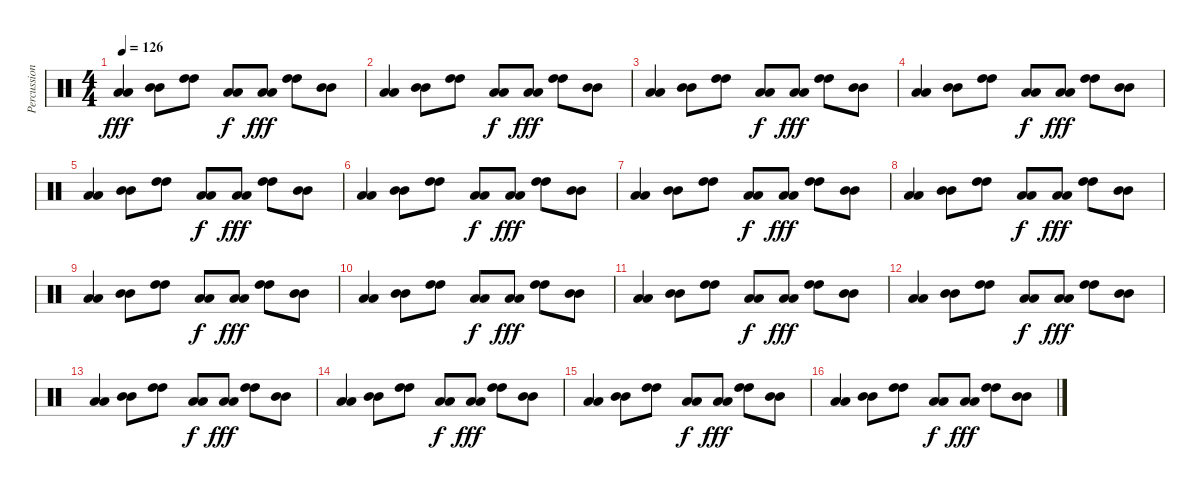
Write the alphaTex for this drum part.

\track ("Percussions 2" "Percussion") {instrument percussion}
\staff {score}
\articulation defaults
\ts (4 4)
\tempo 126
\clef neutral
\ks c
("Low Tom (hit)" "Low Tom (hit)").4{dy fff} ("Mid Tom (hit)" "Mid Tom (hit)").8 ("High Tom (hit)" "High Tom (hit)").8 ("Low Tom (hit)" "Low Tom (hit)").8{dy f} ("Low Tom (hit)" "Low Tom (hit)").8{dy fff} ("High Tom (hit)" "High Tom (hit)").8 ("Mid Tom (hit)" "Mid Tom (hit)").8 |
("Low Tom (hit)" "Low Tom (hit)").4 ("Mid Tom (hit)" "Mid Tom (hit)").8 ("High Tom (hit)" "High Tom (hit)").8 ("Low Tom (hit)" "Low Tom (hit)").8{dy f} ("Low Tom (hit)" "Low Tom (hit)").8{dy fff} ("High Tom (hit)" "High Tom (hit)").8 ("Mid Tom (hit)" "Mid Tom (hit)").8 |
("Low Tom (hit)" "Low Tom (hit)").4 ("Mid Tom (hit)" "Mid Tom (hit)").8 ("High Tom (hit)" "High Tom (hit)").8 ("Low Tom (hit)" "Low Tom (hit)").8{dy f} ("Low Tom (hit)" "Low Tom (hit)").8{dy fff} ("High Tom (hit)" "High Tom (hit)").8 ("Mid Tom (hit)" "Mid Tom (hit)").8 |
("Low Tom (hit)" "Low Tom (hit)").4 ("Mid Tom (hit)" "Mid Tom (hit)").8 ("High Tom (hit)" "High Tom (hit)").8 ("Low Tom (hit)" "Low Tom (hit)").8{dy f} ("Low Tom (hit)" "Low Tom (hit)").8{dy fff} ("High Tom (hit)" "High Tom (hit)").8 ("Mid Tom (hit)" "Mid Tom (hit)").8 |
("Low Tom (hit)" "Low Tom (hit)").4 ("Mid Tom (hit)" "Mid Tom (hit)").8 ("High Tom (hit)" "High Tom (hit)").8 ("Low Tom (hit)" "Low Tom (hit)").8{dy f} ("Low Tom (hit)" "Low Tom (hit)").8{dy fff} ("High Tom (hit)" "High Tom (hit)").8 ("Mid Tom (hit)" "Mid Tom (hit)").8 |
("Low Tom (hit)" "Low Tom (hit)").4 ("Mid Tom (hit)" "Mid Tom (hit)").8 ("High Tom (hit)" "High Tom (hit)").8 ("Low Tom (hit)" "Low Tom (hit)").8{dy f} ("Low Tom (hit)" "Low Tom (hit)").8{dy fff} ("High Tom (hit)" "High Tom (hit)").8 ("Mid Tom (hit)" "Mid Tom (hit)").8 |
("Low Tom (hit)" "Low Tom (hit)").4 ("Mid Tom (hit)" "Mid Tom (hit)").8 ("High Tom (hit)" "High Tom (hit)").8 ("Low Tom (hit)" "Low Tom (hit)").8{dy f} ("Low Tom (hit)" "Low Tom (hit)").8{dy fff} ("High Tom (hit)" "High Tom (hit)").8 ("Mid Tom (hit)" "Mid Tom (hit)").8 |
("Low Tom (hit)" "Low Tom (hit)").4 ("Mid Tom (hit)" "Mid Tom (hit)").8 ("High Tom (hit)" "High Tom (hit)").8 ("Low Tom (hit)" "Low Tom (hit)").8{dy f} ("Low Tom (hit)" "Low Tom (hit)").8{dy fff} ("High Tom (hit)" "High Tom (hit)").8 ("Mid Tom (hit)" "Mid Tom (hit)").8 |
("Low Tom (hit)" "Low Tom (hit)").4 ("Mid Tom (hit)" "Mid Tom (hit)").8 ("High Tom (hit)" "High Tom (hit)").8 ("Low Tom (hit)" "Low Tom (hit)").8{dy f} ("Low Tom (hit)" "Low Tom (hit)").8{dy fff} ("High Tom (hit)" "High Tom (hit)").8 ("Mid Tom (hit)" "Mid Tom (hit)").8 |
("Low Tom (hit)" "Low Tom (hit)").4 ("Mid Tom (hit)" "Mid Tom (hit)").8 ("High Tom (hit)" "High Tom (hit)").8 ("Low Tom (hit)" "Low Tom (hit)").8{dy f} ("Low Tom (hit)" "Low Tom (hit)").8{dy fff} ("High Tom (hit)" "High Tom (hit)").8 ("Mid Tom (hit)" "Mid Tom (hit)").8 |
("Low Tom (hit)" "Low Tom (hit)").4 ("Mid Tom (hit)" "Mid Tom (hit)").8 ("High Tom (hit)" "High Tom (hit)").8 ("Low Tom (hit)" "Low Tom (hit)").8{dy f} ("Low Tom (hit)" "Low Tom (hit)").8{dy fff} ("High Tom (hit)" "High Tom (hit)").8 ("Mid Tom (hit)" "Mid Tom (hit)").8 |
("Low Tom (hit)" "Low Tom (hit)").4 ("Mid Tom (hit)" "Mid Tom (hit)").8 ("High Tom (hit)" "High Tom (hit)").8 ("Low Tom (hit)" "Low Tom (hit)").8{dy f} ("Low Tom (hit)" "Low Tom (hit)").8{dy fff} ("High Tom (hit)" "High Tom (hit)").8 ("Mid Tom (hit)" "Mid Tom (hit)").8 |
("Low Tom (hit)" "Low Tom (hit)").4 ("Mid Tom (hit)" "Mid Tom (hit)").8 ("High Tom (hit)" "High Tom (hit)").8 ("Low Tom (hit)" "Low Tom (hit)").8{dy f} ("Low Tom (hit)" "Low Tom (hit)").8{dy fff} ("High Tom (hit)" "High Tom (hit)").8 ("Mid Tom (hit)" "Mid Tom (hit)").8 |
("Low Tom (hit)" "Low Tom (hit)").4 ("Mid Tom (hit)" "Mid Tom (hit)").8 ("High Tom (hit)" "High Tom (hit)").8 ("Low Tom (hit)" "Low Tom (hit)").8{dy f} ("Low Tom (hit)" "Low Tom (hit)").8{dy fff} ("High Tom (hit)" "High Tom (hit)").8 ("Mid Tom (hit)" "Mid Tom (hit)").8 |
("Low Tom (hit)" "Low Tom (hit)").4 ("Mid Tom (hit)" "Mid Tom (hit)").8 ("High Tom (hit)" "High Tom (hit)").8 ("Low Tom (hit)" "Low Tom (hit)").8{dy f} ("Low Tom (hit)" "Low Tom (hit)").8{dy fff} ("High Tom (hit)" "High Tom (hit)").8 ("Mid Tom (hit)" "Mid Tom (hit)").8 |
("Low Tom (hit)" "Low Tom (hit)").4 ("Mid Tom (hit)" "Mid Tom (hit)").8 ("High Tom (hit)" "High Tom (hit)").8 ("Low Tom (hit)" "Low Tom (hit)").8{dy f} ("Low Tom (hit)" "Low Tom (hit)").8{dy fff} ("High Tom (hit)" "High Tom (hit)").8 ("Mid Tom (hit)" "Mid Tom (hit)").8
